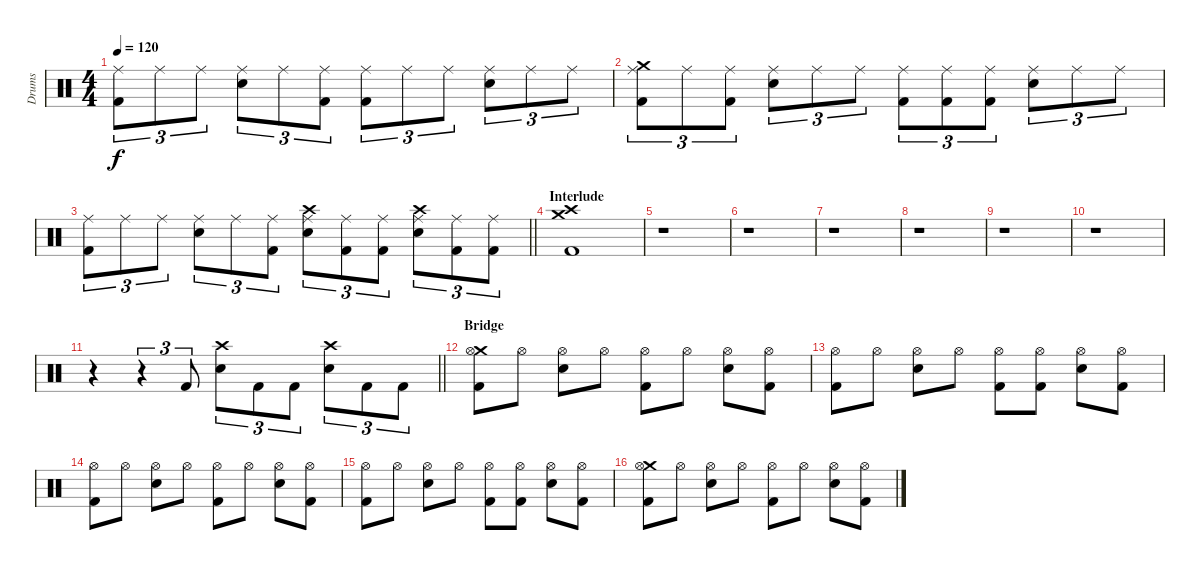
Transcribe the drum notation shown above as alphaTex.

\track ("Drums" "Drums") {instrument percussion}
\staff {score}
\articulation defaults
\ts (4 4)
\tempo 120
\clef neutral
\ks c
("Ride (middle)" "Kick (hit) 2").8{tu (3 2) dy f} "Ride (middle)".8{tu (3 2)} "Ride (middle)".8{tu (3 2)} ("Ride (middle)" "Snare (hit) 2").8{tu (3 2)} "Ride (middle)".8{tu (3 2)} ("Ride (middle)" "Kick (hit) 2").8{tu (3 2)} ("Ride (middle)" "Kick (hit) 2").8{tu (3 2)} "Ride (middle)".8{tu (3 2)} "Ride (middle)".8{tu (3 2)} ("Ride (middle)" "Snare (hit) 2").8{tu (3 2)} "Ride (middle)".8{tu (3 2)} "Ride (middle)".8{tu (3 2)} |
("Crash medium (hit)" "Ride (middle)" "Kick (hit) 2").8{tu (3 2)} "Ride (middle)".8{tu (3 2)} ("Ride (middle)" "Kick (hit) 2").8{tu (3 2)} ("Ride (middle)" "Snare (hit) 2").8{tu (3 2)} "Ride (middle)".8{tu (3 2)} "Ride (middle)".8{tu (3 2)} ("Ride (middle)" "Kick (hit) 2").8{tu (3 2)} ("Ride (middle)" "Kick (hit) 2").8{tu (3 2)} ("Ride (middle)" "Kick (hit) 2").8{tu (3 2)} ("Ride (middle)" "Snare (hit) 2").8{tu (3 2)} "Ride (middle)".8{tu (3 2)} "Ride (middle)".8{tu (3 2)} |
\barLineRight lightlight
("Ride (middle)" "Kick (hit) 2").8{tu (3 2)} "Ride (middle)".8{tu (3 2)} "Ride (middle)".8{tu (3 2)} ("Ride (middle)" "Snare (hit) 2").8{tu (3 2)} "Ride (middle)".8{tu (3 2)} ("Ride (middle)" "Kick (hit) 2").8{tu (3 2)} ("Crash high (hit)" "Ride (middle)" "Snare (hit) 2").8{tu (3 2)} ("Ride (middle)" "Kick (hit) 2").8{tu (3 2)} ("Ride (middle)" "Kick (hit) 2").8{tu (3 2)} ("Crash high (hit)" "Ride (middle)" "Snare (hit) 2").8{tu (3 2)} ("Ride (middle)" "Kick (hit) 2").8{tu (3 2)} ("Ride (middle)" "Kick (hit) 2").8{tu (3 2)} |
\section ("" "Interlude")
("Crash medium (hit)" "Crash high (hit)" "Kick (hit) 2").1 |
r.1 |
r.1 |
r.1 |
r.1 |
r.1 |
r.1 |
\barLineRight lightlight
r.4 r.4{tu (3 2)} "Kick (hit) 2".8{tu (3 2)} ("Crash high (hit)" "Snare (hit) 2").8{tu (3 2)} "Kick (hit) 2".8{tu (3 2)} "Kick (hit) 2".8{tu (3 2)} ("Crash high (hit)" "Snare (hit) 2").8{tu (3 2)} "Kick (hit) 2".8{tu (3 2)} "Kick (hit) 2".8{tu (3 2)} |
\section ("" "Bridge")
("Crash medium (hit)" "Hi-Hat (open)" "Kick (hit) 2").8 "Hi-Hat (open)".8 ("Hi-Hat (open)" "Snare (hit) 2").8 "Hi-Hat (open)".8 ("Hi-Hat (open)" "Kick (hit) 2").8 "Hi-Hat (open)".8 ("Hi-Hat (open)" "Snare (hit) 2").8 ("Hi-Hat (open)" "Kick (hit) 2").8 |
("Hi-Hat (open)" "Kick (hit) 2").8 "Hi-Hat (open)".8 ("Hi-Hat (open)" "Snare (hit) 2").8 "Hi-Hat (open)".8 ("Hi-Hat (open)" "Kick (hit) 2").8 ("Hi-Hat (open)" "Kick (hit) 2").8 ("Hi-Hat (open)" "Snare (hit) 2").8 ("Hi-Hat (open)" "Kick (hit) 2").8 |
("Hi-Hat (open)" "Kick (hit) 2").8 "Hi-Hat (open)".8 ("Hi-Hat (open)" "Snare (hit) 2").8 "Hi-Hat (open)".8 ("Hi-Hat (open)" "Kick (hit) 2").8 "Hi-Hat (open)".8 ("Hi-Hat (open)" "Snare (hit) 2").8 ("Hi-Hat (open)" "Kick (hit) 2").8 |
("Hi-Hat (open)" "Kick (hit) 2").8 "Hi-Hat (open)".8 ("Hi-Hat (open)" "Snare (hit) 2").8 "Hi-Hat (open)".8 ("Hi-Hat (open)" "Kick (hit) 2").8 ("Hi-Hat (open)" "Kick (hit) 2").8 ("Hi-Hat (open)" "Snare (hit) 2").8 ("Hi-Hat (open)" "Kick (hit) 2").8 |
("Crash medium (hit)" "Hi-Hat (open)" "Kick (hit) 2").8 "Hi-Hat (open)".8 ("Hi-Hat (open)" "Snare (hit) 2").8 "Hi-Hat (open)".8 ("Hi-Hat (open)" "Kick (hit) 2").8 "Hi-Hat (open)".8 ("Hi-Hat (open)" "Snare (hit) 2").8 ("Hi-Hat (open)" "Kick (hit) 2").8
